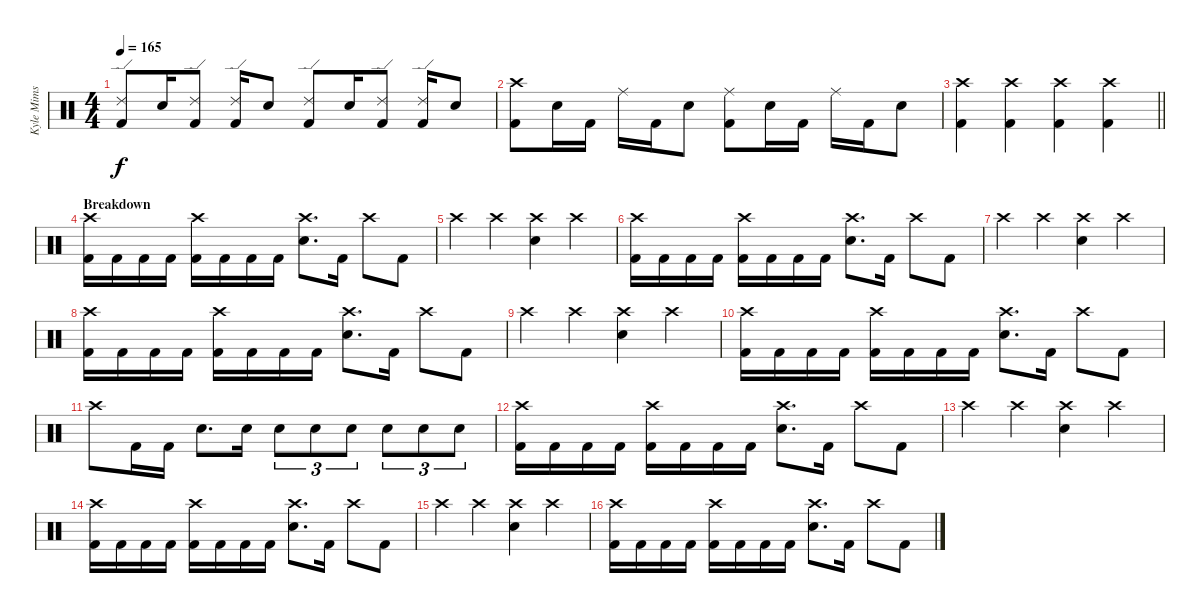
\track ("Kyle Mims" "Kyle Mims") {instrument percussion}
\staff {score}
\articulation defaults
\ts (4 4)
\tempo 165
\clef neutral
\ks c
("Ride (edge) 2" "Kick (hit) 2").8{dy f} "Electric Snare (hit)".16 ("Ride (edge) 2" "Kick (hit) 2").8 ("Ride (edge) 2" "Kick (hit) 2").16 "Electric Snare (hit)".8 ("Ride (edge) 2" "Kick (hit) 2").8 "Electric Snare (hit)".16 ("Ride (edge) 2" "Kick (hit) 2").8 ("Ride (edge) 2" "Kick (hit) 2").16 "Electric Snare (hit)".8 |
("Crash high (hit)" "Kick (hit) 2").8 "Electric Snare (hit)".16 "Kick (hit) 2".16 "Ride (middle)".16 "Kick (hit) 2".16 "Electric Snare (hit)".8 ("Ride (middle)" "Kick (hit) 2").8 "Electric Snare (hit)".16 "Kick (hit) 2".16 "Ride (middle)".16 "Kick (hit) 2".16 "Electric Snare (hit)".8 |
\barLineRight lightlight
("Crash high (hit)" "Kick (hit) 2").4 ("Crash high (hit)" "Kick (hit) 2").4 ("Crash high (hit)" "Kick (hit) 2").4 ("Crash high (hit)" "Kick (hit) 2").4 |
\section ("" "Breakdown")
("Crash high (hit)" "Kick (hit) 2").16 "Kick (hit) 2".16 "Kick (hit) 2".16 "Kick (hit) 2".16 ("Crash high (hit)" "Kick (hit) 2").16 "Kick (hit) 2".16 "Kick (hit) 2".16 "Kick (hit) 2".16 ("Crash high (hit)" "Electric Snare (hit)").8{d} "Kick (hit) 2".16 "Crash high (hit)".8 "Kick (hit) 2".8 |
"Crash high (hit)".4 "Crash high (hit)".4 ("Crash high (hit)" "Electric Snare (hit)").4 "Crash high (hit)".4 |
("Crash high (hit)" "Kick (hit) 2").16 "Kick (hit) 2".16 "Kick (hit) 2".16 "Kick (hit) 2".16 ("Crash high (hit)" "Kick (hit) 2").16 "Kick (hit) 2".16 "Kick (hit) 2".16 "Kick (hit) 2".16 ("Crash high (hit)" "Electric Snare (hit)").8{d} "Kick (hit) 2".16 "Crash high (hit)".8 "Kick (hit) 2".8 |
"Crash high (hit)".4 "Crash high (hit)".4 ("Crash high (hit)" "Electric Snare (hit)").4 "Crash high (hit)".4 |
("Crash high (hit)" "Kick (hit) 2").16 "Kick (hit) 2".16 "Kick (hit) 2".16 "Kick (hit) 2".16 ("Crash high (hit)" "Kick (hit) 2").16 "Kick (hit) 2".16 "Kick (hit) 2".16 "Kick (hit) 2".16 ("Crash high (hit)" "Electric Snare (hit)").8{d} "Kick (hit) 2".16 "Crash high (hit)".8 "Kick (hit) 2".8 |
"Crash high (hit)".4 "Crash high (hit)".4 ("Crash high (hit)" "Electric Snare (hit)").4 "Crash high (hit)".4 |
("Crash high (hit)" "Kick (hit) 2").16 "Kick (hit) 2".16 "Kick (hit) 2".16 "Kick (hit) 2".16 ("Crash high (hit)" "Kick (hit) 2").16 "Kick (hit) 2".16 "Kick (hit) 2".16 "Kick (hit) 2".16 ("Crash high (hit)" "Electric Snare (hit)").8{d} "Kick (hit) 2".16 "Crash high (hit)".8 "Kick (hit) 2".8 |
"Crash high (hit)".8 "Kick (hit) 2".16 "Kick (hit) 2".16 "Electric Snare (hit)".8{d} "Electric Snare (hit)".16 "Electric Snare (hit)".8{tu (3 2)} "Electric Snare (hit)".8{tu (3 2)} "Electric Snare (hit)".8{tu (3 2)} "Electric Snare (hit)".8{tu (3 2)} "Electric Snare (hit)".8{tu (3 2)} "Electric Snare (hit)".8{tu (3 2)} |
("Crash high (hit)" "Kick (hit) 2").16 "Kick (hit) 2".16 "Kick (hit) 2".16 "Kick (hit) 2".16 ("Crash high (hit)" "Kick (hit) 2").16 "Kick (hit) 2".16 "Kick (hit) 2".16 "Kick (hit) 2".16 ("Crash high (hit)" "Electric Snare (hit)").8{d} "Kick (hit) 2".16 "Crash high (hit)".8 "Kick (hit) 2".8 |
"Crash high (hit)".4 "Crash high (hit)".4 ("Crash high (hit)" "Electric Snare (hit)").4 "Crash high (hit)".4 |
("Crash high (hit)" "Kick (hit) 2").16 "Kick (hit) 2".16 "Kick (hit) 2".16 "Kick (hit) 2".16 ("Crash high (hit)" "Kick (hit) 2").16 "Kick (hit) 2".16 "Kick (hit) 2".16 "Kick (hit) 2".16 ("Crash high (hit)" "Electric Snare (hit)").8{d} "Kick (hit) 2".16 "Crash high (hit)".8 "Kick (hit) 2".8 |
"Crash high (hit)".4 "Crash high (hit)".4 ("Crash high (hit)" "Electric Snare (hit)").4 "Crash high (hit)".4 |
("Crash high (hit)" "Kick (hit) 2").16 "Kick (hit) 2".16 "Kick (hit) 2".16 "Kick (hit) 2".16 ("Crash high (hit)" "Kick (hit) 2").16 "Kick (hit) 2".16 "Kick (hit) 2".16 "Kick (hit) 2".16 ("Crash high (hit)" "Electric Snare (hit)").8{d} "Kick (hit) 2".16 "Crash high (hit)".8 "Kick (hit) 2".8
